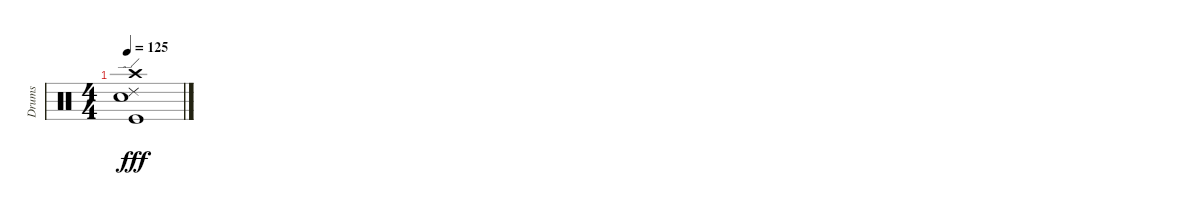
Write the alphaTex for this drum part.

\track ("Drums" "Drums") {instrument percussion}
\staff {score}
\articulation defaults
\ts (4 4)
\tempo 125
\clef neutral
\ks c
("Ride (edge) 2" "Snare (hit) 2" "Kick (hit)" "Crash high (hit)").1{dy fff}
